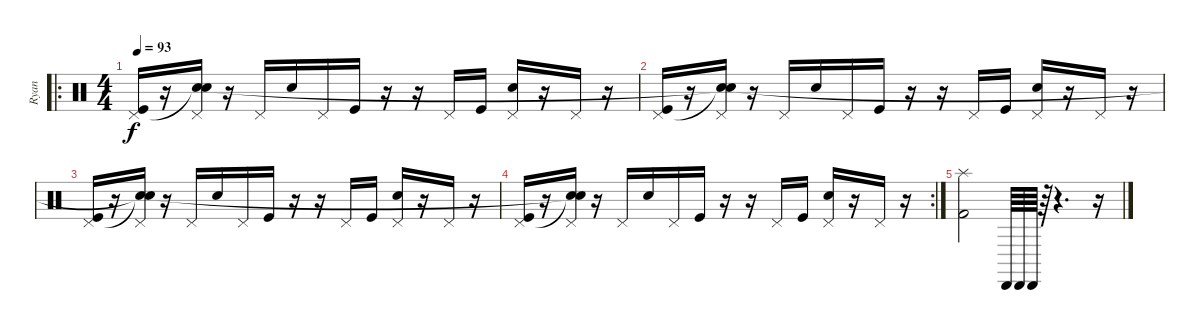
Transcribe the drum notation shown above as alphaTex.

\track ("Ryan" "Ryan") {instrument percussion}
\staff {score}
\articulation defaults
\ro
\ts (4 4)
\tempo 93
\clef neutral
\ks c
("Pedal Hi-Hat (hit)" "Kick (hit)").16{dy f} r.16 ("Snare (hit)"{t} "Pedal Hi-Hat (hit)" "Snare (hit)"{t}).16 r.16 "Pedal Hi-Hat (hit)".16 "Electric Snare (hit)".16 "Pedal Hi-Hat (hit)".16 "Kick (hit)".16 r.16 r.16 "Pedal Hi-Hat (hit)".16 "Kick (hit)".16 ("Pedal Hi-Hat (hit)" "Electric Snare (hit)").16 r.16 "Pedal Hi-Hat (hit)".16 r.16 |
("Pedal Hi-Hat (hit)" "Kick (hit)").16 r.16 ("Snare (hit)"{t} "Pedal Hi-Hat (hit)" "Snare (hit)"{t}).16 r.16 "Pedal Hi-Hat (hit)".16 "Electric Snare (hit)".16 "Pedal Hi-Hat (hit)".16 "Kick (hit)".16 r.16 r.16 "Pedal Hi-Hat (hit)".16 "Kick (hit)".16 ("Pedal Hi-Hat (hit)" "Electric Snare (hit)").16 r.16 "Pedal Hi-Hat (hit)".16 r.16 |
("Pedal Hi-Hat (hit)" "Kick (hit)").16 r.16 ("Snare (hit)"{t} "Pedal Hi-Hat (hit)" "Snare (hit)"{t}).16 r.16 "Pedal Hi-Hat (hit)".16 "Electric Snare (hit)".16 "Pedal Hi-Hat (hit)".16 "Kick (hit)".16 r.16 r.16 "Pedal Hi-Hat (hit)".16 "Kick (hit)".16 ("Pedal Hi-Hat (hit)" "Electric Snare (hit)").16 r.16 "Pedal Hi-Hat (hit)".16 r.16 |
\rc 2
("Pedal Hi-Hat (hit)" "Kick (hit)").16 r.16 ("Snare (hit)"{t} "Pedal Hi-Hat (hit)" "Snare (hit)"{t}).16 r.16 "Pedal Hi-Hat (hit)".16 "Electric Snare (hit)".16 "Pedal Hi-Hat (hit)".16 "Kick (hit)".16 r.16 r.16 "Pedal Hi-Hat (hit)".16 "Kick (hit)".16 ("Pedal Hi-Hat (hit)" "Electric Snare (hit)").16 r.16 "Pedal Hi-Hat (hit)".16 r.16 |
("Splash (hit)" "Kick (hit) 2").2 "Cabasa (hit)".64 "Cabasa (hit)".64 "Cabasa (hit)".64 r.64 r.4{d} r.16
